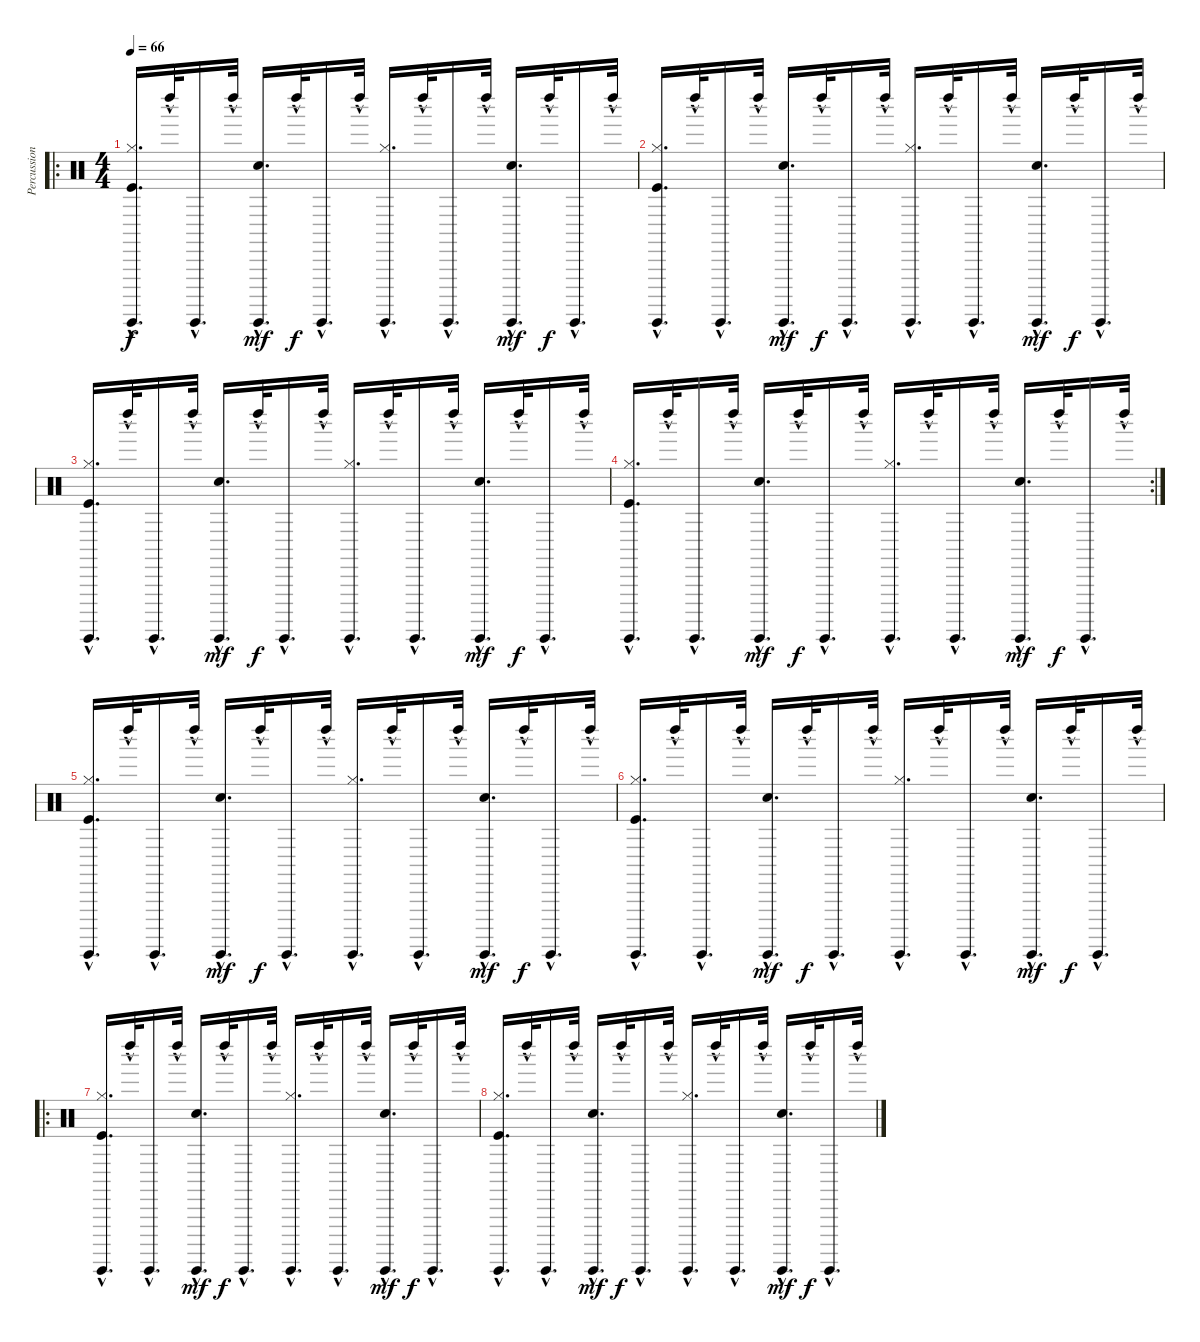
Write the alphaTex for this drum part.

\track ("Percussions" "Percussion") {instrument percussion}
\staff {score}
\articulation defaults
\ro
\ts (4 4)
\tempo 66
\clef neutral
\ks c
("Hi-Hat (closed)" "Kick (hit)" "Guiro (hit)"{hac}).16{d dy f} "Left Maraca (hit)"{hac}.32 "Guiro (hit)"{hac}.16{d} "Left Maraca (hit)"{hac}.32 ("Electric Snare (hit)" "Guiro (hit)"{hac}).16{d dy mf} "Left Maraca (hit)"{hac}.32{dy f} "Guiro (hit)"{hac}.16{d} "Left Maraca (hit)"{hac}.32 ("Hi-Hat (closed)" "Guiro (hit)"{hac}).16{d} "Left Maraca (hit)"{hac}.32 "Guiro (hit)"{hac}.16{d} "Left Maraca (hit)"{hac}.32 ("Electric Snare (hit)" "Guiro (hit)"{hac}).16{d dy mf} "Left Maraca (hit)"{hac}.32{dy f} "Guiro (hit)"{hac}.16{d} "Left Maraca (hit)"{hac}.32 |
("Hi-Hat (closed)" "Kick (hit)" "Guiro (hit)"{hac}).16{d} "Left Maraca (hit)"{hac}.32 "Guiro (hit)"{hac}.16{d} "Left Maraca (hit)"{hac}.32 ("Electric Snare (hit)" "Guiro (hit)"{hac}).16{d dy mf} "Left Maraca (hit)"{hac}.32{dy f} "Guiro (hit)"{hac}.16{d} "Left Maraca (hit)"{hac}.32 ("Hi-Hat (closed)" "Guiro (hit)"{hac}).16{d} "Left Maraca (hit)"{hac}.32 "Guiro (hit)"{hac}.16{d} "Left Maraca (hit)"{hac}.32 ("Electric Snare (hit)" "Guiro (hit)"{hac}).16{d dy mf} "Left Maraca (hit)"{hac}.32{dy f} "Guiro (hit)"{hac}.16{d} "Left Maraca (hit)"{hac}.32 |
("Hi-Hat (closed)" "Kick (hit)" "Guiro (hit)"{hac}).16{d} "Left Maraca (hit)"{hac}.32 "Guiro (hit)"{hac}.16{d} "Left Maraca (hit)"{hac}.32 ("Electric Snare (hit)" "Guiro (hit)"{hac}).16{d dy mf} "Left Maraca (hit)"{hac}.32{dy f} "Guiro (hit)"{hac}.16{d} "Left Maraca (hit)"{hac}.32 ("Hi-Hat (closed)" "Guiro (hit)"{hac}).16{d} "Left Maraca (hit)"{hac}.32 "Guiro (hit)"{hac}.16{d} "Left Maraca (hit)"{hac}.32 ("Electric Snare (hit)" "Guiro (hit)"{hac}).16{d dy mf} "Left Maraca (hit)"{hac}.32{dy f} "Guiro (hit)"{hac}.16{d} "Left Maraca (hit)"{hac}.32 |
\rc 2
("Hi-Hat (closed)" "Kick (hit)" "Guiro (hit)"{hac}).16{d} "Left Maraca (hit)"{hac}.32 "Guiro (hit)"{hac}.16{d} "Left Maraca (hit)"{hac}.32 ("Electric Snare (hit)" "Guiro (hit)"{hac}).16{d dy mf} "Left Maraca (hit)"{hac}.32{dy f} "Guiro (hit)"{hac}.16{d} "Left Maraca (hit)"{hac}.32 ("Hi-Hat (closed)" "Guiro (hit)"{hac}).16{d} "Left Maraca (hit)"{hac}.32 "Guiro (hit)"{hac}.16{d} "Left Maraca (hit)"{hac}.32 ("Electric Snare (hit)" "Guiro (hit)"{hac}).16{d dy mf} "Left Maraca (hit)"{hac}.32{dy f} "Guiro (hit)"{hac}.16{d} "Left Maraca (hit)"{hac}.32 |
("Hi-Hat (closed)" "Kick (hit)" "Guiro (hit)"{hac}).16{d} "Left Maraca (hit)"{hac}.32 "Guiro (hit)"{hac}.16{d} "Left Maraca (hit)"{hac}.32 ("Electric Snare (hit)" "Guiro (hit)"{hac}).16{d dy mf} "Left Maraca (hit)"{hac}.32{dy f} "Guiro (hit)"{hac}.16{d} "Left Maraca (hit)"{hac}.32 ("Hi-Hat (closed)" "Guiro (hit)"{hac}).16{d} "Left Maraca (hit)"{hac}.32 "Guiro (hit)"{hac}.16{d} "Left Maraca (hit)"{hac}.32 ("Electric Snare (hit)" "Guiro (hit)"{hac}).16{d dy mf} "Left Maraca (hit)"{hac}.32{dy f} "Guiro (hit)"{hac}.16{d} "Left Maraca (hit)"{hac}.32 |
("Hi-Hat (closed)" "Kick (hit)" "Guiro (hit)"{hac}).16{d} "Left Maraca (hit)"{hac}.32 "Guiro (hit)"{hac}.16{d} "Left Maraca (hit)"{hac}.32 ("Electric Snare (hit)" "Guiro (hit)"{hac}).16{d dy mf} "Left Maraca (hit)"{hac}.32{dy f} "Guiro (hit)"{hac}.16{d} "Left Maraca (hit)"{hac}.32 ("Hi-Hat (closed)" "Guiro (hit)"{hac}).16{d} "Left Maraca (hit)"{hac}.32 "Guiro (hit)"{hac}.16{d} "Left Maraca (hit)"{hac}.32 ("Electric Snare (hit)" "Guiro (hit)"{hac}).16{d dy mf} "Left Maraca (hit)"{hac}.32{dy f} "Guiro (hit)"{hac}.16{d} "Left Maraca (hit)"{hac}.32 |
\ro
("Hi-Hat (closed)" "Kick (hit)" "Guiro (hit)"{hac}).16{d} "Left Maraca (hit)"{hac}.32 "Guiro (hit)"{hac}.16{d} "Left Maraca (hit)"{hac}.32 ("Electric Snare (hit)" "Guiro (hit)"{hac}).16{d dy mf} "Left Maraca (hit)"{hac}.32{dy f} "Guiro (hit)"{hac}.16{d} "Left Maraca (hit)"{hac}.32 ("Hi-Hat (closed)" "Guiro (hit)"{hac}).16{d} "Left Maraca (hit)"{hac}.32 "Guiro (hit)"{hac}.16{d} "Left Maraca (hit)"{hac}.32 ("Electric Snare (hit)" "Guiro (hit)"{hac}).16{d dy mf} "Left Maraca (hit)"{hac}.32{dy f} "Guiro (hit)"{hac}.16{d} "Left Maraca (hit)"{hac}.32 |
("Hi-Hat (closed)" "Kick (hit)" "Guiro (hit)"{hac}).16{d} "Left Maraca (hit)"{hac}.32 "Guiro (hit)"{hac}.16{d} "Left Maraca (hit)"{hac}.32 ("Electric Snare (hit)" "Guiro (hit)"{hac}).16{d dy mf} "Left Maraca (hit)"{hac}.32{dy f} "Guiro (hit)"{hac}.16{d} "Left Maraca (hit)"{hac}.32 ("Hi-Hat (closed)" "Guiro (hit)"{hac}).16{d} "Left Maraca (hit)"{hac}.32 "Guiro (hit)"{hac}.16{d} "Left Maraca (hit)"{hac}.32 ("Electric Snare (hit)" "Guiro (hit)"{hac}).16{d dy mf} "Left Maraca (hit)"{hac}.32{dy f} "Guiro (hit)"{hac}.16{d} "Left Maraca (hit)"{hac}.32
